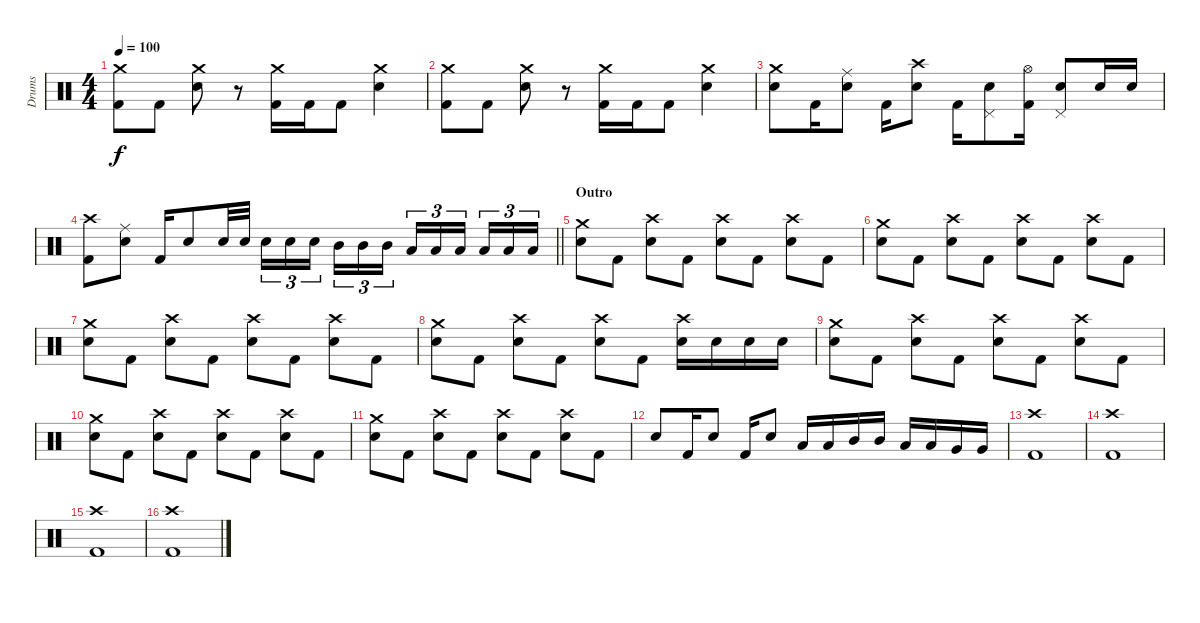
\track ("Drums" "Drums") {instrument percussion}
\staff {score}
\articulation defaults
\ts (4 4)
\tempo 100
\clef neutral
\ks c
("Crash medium (hit)" "Kick (hit) 2").8{dy f} "Kick (hit) 2".8 ("Crash medium (hit)" "Snare (hit) 2").8 r.8 ("Crash medium (hit)" "Kick (hit) 2").16 "Kick (hit) 2".16 "Kick (hit) 2".8 ("Crash medium (hit)" "Snare (hit) 2").4 |
("Crash medium (hit)" "Kick (hit) 2").8 "Kick (hit) 2".8 ("Crash medium (hit)" "Snare (hit) 2").8 r.8 ("Crash medium (hit)" "Kick (hit) 2").16 "Kick (hit) 2".16 "Kick (hit) 2".8 ("Crash medium (hit)" "Snare (hit) 2").4 |
("Crash medium (hit)" "Snare (hit) 2").8 "Kick (hit) 2".16 ("Ride (middle)" "Snare (hit) 2").8 "Kick (hit) 2".16 ("Crash high (hit)" "Snare (hit) 2").8 "Kick (hit) 2".16 ("Pedal Hi-Hat (hit)" "Snare (hit) 2").8 ("Hi-Hat (open)" "Kick (hit) 2").16 ("Pedal Hi-Hat (hit)" "Snare (hit) 2").8 "Snare (hit) 2".16 "Snare (hit) 2".16 |
\barLineRight lightlight
("Crash high (hit)" "Kick (hit) 2").8 ("Ride (middle)" "Snare (hit) 2").8 "Kick (hit) 2".16 "Snare (hit) 2".8 "Snare (hit) 2".32 "Snare (hit) 2".32 "Snare (hit) 2".16{tu (3 2)} "Snare (hit) 2".16{tu (3 2)} "Snare (hit) 2".16{tu (3 2) beam splitsecondary} "Mid Tom (hit)".16{tu (3 2)} "Mid Tom (hit)".16{tu (3 2)} "Mid Tom (hit)".16{tu (3 2)} "Low Tom (hit)".16{tu (3 2)} "Low Tom (hit)".16{tu (3 2)} "Low Tom (hit)".16{tu (3 2) beam splitsecondary} "Low Floor Tom (hit)".16{tu (3 2)} "Low Floor Tom (hit)".16{tu (3 2)} "Low Floor Tom (hit)".16{tu (3 2)} |
\section ("" "Outro")
("Crash medium (hit)" "Snare (hit) 2").8 "Kick (hit) 2".8 ("Crash high (hit)" "Snare (hit) 2").8 "Kick (hit) 2".8 ("Crash high (hit)" "Snare (hit) 2").8 "Kick (hit) 2".8 ("Crash high (hit)" "Snare (hit) 2").8 "Kick (hit) 2".8 |
("Crash medium (hit)" "Snare (hit) 2").8 "Kick (hit) 2".8 ("Crash high (hit)" "Snare (hit) 2").8 "Kick (hit) 2".8 ("Crash high (hit)" "Snare (hit) 2").8 "Kick (hit) 2".8 ("Crash high (hit)" "Snare (hit) 2").8 "Kick (hit) 2".8 |
("Crash medium (hit)" "Snare (hit) 2").8 "Kick (hit) 2".8 ("Crash high (hit)" "Snare (hit) 2").8 "Kick (hit) 2".8 ("Crash high (hit)" "Snare (hit) 2").8 "Kick (hit) 2".8 ("Crash high (hit)" "Snare (hit) 2").8 "Kick (hit) 2".8 |
("Crash medium (hit)" "Snare (hit) 2").8 "Kick (hit) 2".8 ("Crash high (hit)" "Snare (hit) 2").8 "Kick (hit) 2".8 ("Crash high (hit)" "Snare (hit) 2").8 "Kick (hit) 2".8 ("Crash high (hit)" "Snare (hit) 2").16 "Snare (hit) 2".16 "Snare (hit) 2".16 "Snare (hit) 2".16 |
("Crash medium (hit)" "Snare (hit) 2").8 "Kick (hit) 2".8 ("Crash high (hit)" "Snare (hit) 2").8 "Kick (hit) 2".8 ("Crash high (hit)" "Snare (hit) 2").8 "Kick (hit) 2".8 ("Crash high (hit)" "Snare (hit) 2").8 "Kick (hit) 2".8 |
("Crash medium (hit)" "Snare (hit) 2").8 "Kick (hit) 2".8 ("Crash high (hit)" "Snare (hit) 2").8 "Kick (hit) 2".8 ("Crash high (hit)" "Snare (hit) 2").8 "Kick (hit) 2".8 ("Crash high (hit)" "Snare (hit) 2").8 "Kick (hit) 2".8 |
("Crash medium (hit)" "Snare (hit) 2").8 "Kick (hit) 2".8 ("Crash high (hit)" "Snare (hit) 2").8 "Kick (hit) 2".8 ("Crash high (hit)" "Snare (hit) 2").8 "Kick (hit) 2".8 ("Crash high (hit)" "Snare (hit) 2").8 "Kick (hit) 2".8 |
"Snare (hit) 2".8 "Kick (hit) 2".16 "Snare (hit) 2".8 "Kick (hit) 2".16 "Snare (hit) 2".8 "Low Tom (hit)".16 "Low Tom (hit)".16 "Mid Tom (hit)".16 "Mid Tom (hit)".16 "Low Tom (hit)".16 "Low Tom (hit)".16 "Very Low Tom (hit)".16 "Very Low Tom (hit)".16 |
("Crash high (hit)" "Kick (hit) 2").1 |
("Crash high (hit)" "Kick (hit) 2").1 |
("Crash high (hit)" "Kick (hit) 2").1 |
("Crash high (hit)" "Kick (hit) 2").1
